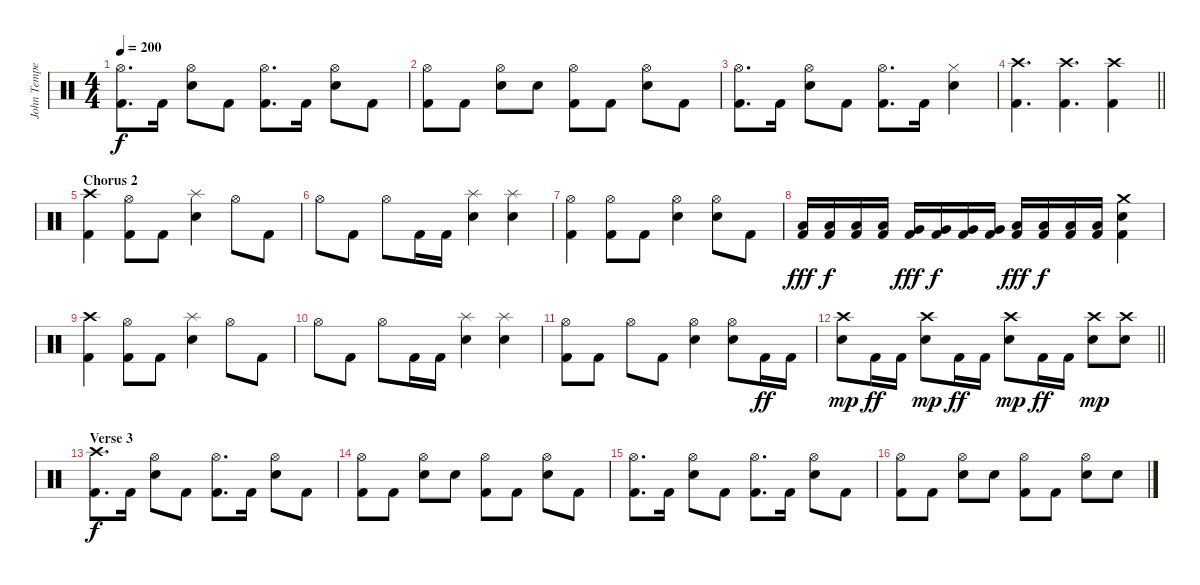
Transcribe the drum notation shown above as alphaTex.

\track ("John Tempesta" "John Tempe") {instrument percussion}
\staff {score}
\articulation defaults
\ts (4 4)
\tempo 200
\clef neutral
\ks c
("Hi-Hat (open)" "Kick (hit) 2").8{d dy f} "Kick (hit) 2".16 ("Electric Snare (hit)" "Hi-Hat (open)").8 "Kick (hit) 2".8 ("Hi-Hat (open)" "Kick (hit) 2").8{d} "Kick (hit) 2".16 ("Electric Snare (hit)" "Hi-Hat (open)").8 "Kick (hit) 2".8 |
("Hi-Hat (open)" "Kick (hit) 2").8 "Kick (hit) 2".8 ("Electric Snare (hit)" "Hi-Hat (open)").8 "Electric Snare (hit)".8 ("Hi-Hat (open)" "Kick (hit) 2").8 "Kick (hit) 2".8 ("Electric Snare (hit)" "Hi-Hat (open)").8 "Kick (hit) 2".8 |
("Hi-Hat (open)" "Kick (hit) 2").8{d} "Kick (hit) 2".16 ("Electric Snare (hit)" "Hi-Hat (open)").8 "Kick (hit) 2".8 ("Hi-Hat (open)" "Kick (hit) 2").8{d} "Kick (hit) 2".16 ("Electric Snare (hit)" "Hi-Hat (closed)").4 |
\barLineRight lightlight
("Crash high (hit)" "Kick (hit) 2").4{d} ("Crash high (hit)" "Kick (hit) 2").4{d} ("Crash high (hit)" "Kick (hit) 2").4 |
\section ("" "Chorus 2")
("Crash high (hit)" "Kick (hit) 2").4 ("Hi-Hat (open)" "Kick (hit) 2").8 "Kick (hit) 2".8 ("Electric Snare (hit)" "Splash (hit)").4 "Hi-Hat (open)".8 "Kick (hit) 2".8 |
"Hi-Hat (open)".8 "Kick (hit) 2".8 "Hi-Hat (open)".8 "Kick (hit) 2".16 "Kick (hit) 2".16 ("Electric Snare (hit)" "Splash (hit)").4 ("Electric Snare (hit)" "Splash (hit)").4 |
("Hi-Hat (open)" "Kick (hit) 2").4 ("Hi-Hat (open)" "Kick (hit) 2").8 "Kick (hit) 2".8 ("Electric Snare (hit)" "Hi-Hat (open)").4 ("Electric Snare (hit)" "Hi-Hat (open)").8 "Kick (hit) 2".8 |
("Low Tom (hit)" "Kick (hit) 2").16{dy fff} ("Low Tom (hit)" "Kick (hit) 2").16{dy f} ("Low Tom (hit)" "Kick (hit) 2").16 ("Low Tom (hit)" "Kick (hit) 2").16 ("Very Low Tom (hit)" "Kick (hit) 2").16{dy fff} ("Very Low Tom (hit)" "Kick (hit) 2").16{dy f} ("Very Low Tom (hit)" "Kick (hit) 2").16 ("Very Low Tom (hit)" "Kick (hit) 2").16 ("Low Floor Tom (hit)" "Kick (hit) 2").16{dy fff} ("Low Floor Tom (hit)" "Kick (hit) 2").16{dy f} ("Low Floor Tom (hit)" "Kick (hit) 2").16 ("Low Floor Tom (hit)" "Kick (hit) 2").16 ("Electric Snare (hit)" "Crash medium (hit)" "Kick (hit) 2").4 |
("Crash high (hit)" "Kick (hit) 2").4 ("Hi-Hat (open)" "Kick (hit) 2").8 "Kick (hit) 2".8 ("Electric Snare (hit)" "Splash (hit)").4 "Hi-Hat (open)".8 "Kick (hit) 2".8 |
"Hi-Hat (open)".8 "Kick (hit) 2".8 "Hi-Hat (open)".8 "Kick (hit) 2".16 "Kick (hit) 2".16 ("Electric Snare (hit)" "Splash (hit)").4 ("Electric Snare (hit)" "Splash (hit)").4 |
("Hi-Hat (open)" "Kick (hit) 2").8 "Kick (hit) 2".8 "Hi-Hat (open)".8 "Kick (hit) 2".8 ("Electric Snare (hit)" "Hi-Hat (open)").4 ("Electric Snare (hit)" "Hi-Hat (open)").8 "Kick (hit) 2".16{dy ff} "Kick (hit) 2".16 |
\barLineRight lightlight
("Electric Snare (hit)" "Crash high (hit)").8{dy mp} "Kick (hit) 2".16{dy ff} "Kick (hit) 2".16 ("Electric Snare (hit)" "Crash high (hit)").8{dy mp} "Kick (hit) 2".16{dy ff} "Kick (hit) 2".16 ("Electric Snare (hit)" "Crash high (hit)").8{dy mp} "Kick (hit) 2".16{dy ff} "Kick (hit) 2".16 ("Electric Snare (hit)" "Crash high (hit)").8{dy mp} ("Electric Snare (hit)" "Crash high (hit)").8 |
\section ("" "Verse 3")
("Crash high (hit)" "Kick (hit) 2").8{d dy f} "Kick (hit) 2".16 ("Electric Snare (hit)" "Hi-Hat (open)").8 "Kick (hit) 2".8 ("Hi-Hat (open)" "Kick (hit) 2").8{d} "Kick (hit) 2".16 ("Electric Snare (hit)" "Hi-Hat (open)").8 "Kick (hit) 2".8 |
("Hi-Hat (open)" "Kick (hit) 2").8 "Kick (hit) 2".8 ("Electric Snare (hit)" "Hi-Hat (open)").8 "Electric Snare (hit)".8 ("Hi-Hat (open)" "Kick (hit) 2").8 "Kick (hit) 2".8 ("Electric Snare (hit)" "Hi-Hat (open)").8 "Kick (hit) 2".8 |
("Hi-Hat (open)" "Kick (hit) 2").8{d} "Kick (hit) 2".16 ("Electric Snare (hit)" "Hi-Hat (open)").8 "Kick (hit) 2".8 ("Hi-Hat (open)" "Kick (hit) 2").8{d} "Kick (hit) 2".16 ("Electric Snare (hit)" "Hi-Hat (open)").8 "Kick (hit) 2".8 |
("Hi-Hat (open)" "Kick (hit) 2").8 "Kick (hit) 2".8 ("Electric Snare (hit)" "Hi-Hat (open)").8 "Electric Snare (hit)".8 ("Hi-Hat (open)" "Kick (hit) 2").8 "Kick (hit) 2".8 ("Electric Snare (hit)" "Hi-Hat (open)").8 "Electric Snare (hit)".8
